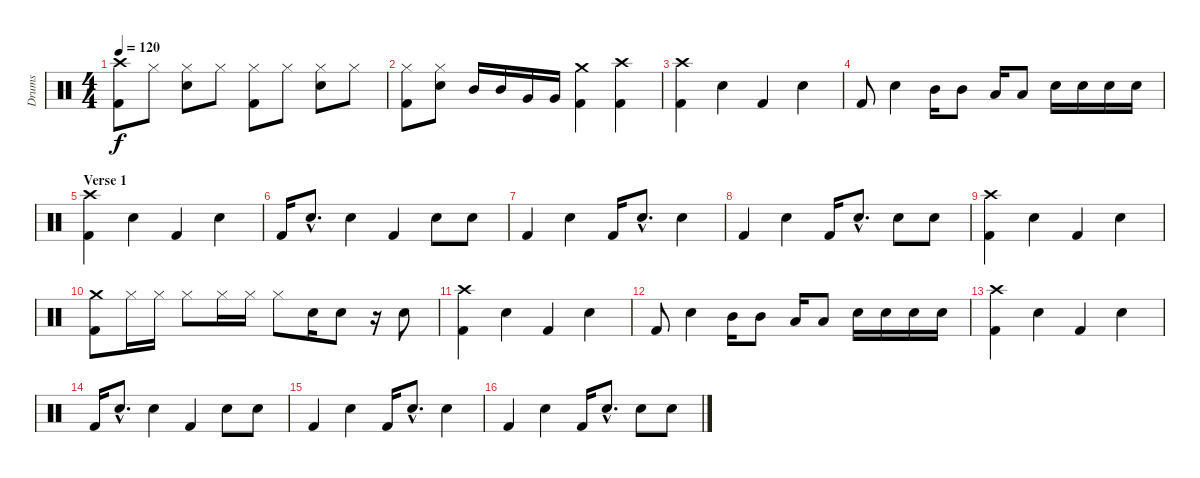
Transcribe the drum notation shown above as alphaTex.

\track ("Drums" "Drums") {instrument percussion}
\staff {score}
\articulation defaults
\ts (4 4)
\tempo 120
\clef neutral
\ks c
("Crash high (hit)" "Kick (hit) 2").8{dy f} "Hi-Hat (closed)".8 ("Electric Snare (hit)" "Hi-Hat (closed)").8 "Hi-Hat (closed)".8 ("Hi-Hat (closed)" "Kick (hit) 2").8 "Hi-Hat (closed)".8 ("Electric Snare (hit)" "Hi-Hat (closed)").8 "Hi-Hat (closed)".8 |
("Hi-Hat (closed)" "Kick (hit) 2").8 ("Electric Snare (hit)" "Hi-Hat (closed)").8 "Mid Tom (hit)".16 "Mid Tom (hit)".16 "Very Low Tom (hit)".16 "Very Low Tom (hit)".16 ("Crash medium (hit)" "Kick (hit) 2").4 ("Crash high (hit)" "Kick (hit) 2").4 |
("Crash high (hit)" "Kick (hit) 2").4 "Electric Snare (hit)".4 "Kick (hit) 2".4 "Electric Snare (hit)".4 |
"Kick (hit) 2".8 "Electric Snare (hit)".4 "Mid Tom (hit)".16 "Mid Tom (hit)".8 "Low Tom (hit)".16 "Low Tom (hit)".8 "Electric Snare (hit)".16 "Electric Snare (hit)".16 "Electric Snare (hit)".16 "Electric Snare (hit)".16 |
\section ("" "Verse 1")
("Crash high (hit)" "Kick (hit) 2").4 "Electric Snare (hit)".4 "Kick (hit) 2".4 "Electric Snare (hit)".4 |
"Kick (hit) 2".16 "Electric Snare (hit)"{hac}.8{d} "Electric Snare (hit)".4 "Kick (hit) 2".4 "Electric Snare (hit)".8 "Electric Snare (hit)".8 |
"Kick (hit) 2".4 "Electric Snare (hit)".4 "Kick (hit) 2".16 "Electric Snare (hit)"{hac}.8{d} "Electric Snare (hit)".4 |
"Kick (hit) 2".4 "Electric Snare (hit)".4 "Kick (hit) 2".16 "Electric Snare (hit)"{hac}.8{d} "Electric Snare (hit)".8 "Electric Snare (hit)".8 |
("Crash high (hit)" "Kick (hit) 2").4 "Electric Snare (hit)".4 "Kick (hit) 2".4 "Electric Snare (hit)".4 |
("Crash medium (hit)" "Kick (hit) 2").8 "Hi-Hat (closed)".16 "Hi-Hat (closed)".16 "Hi-Hat (closed)".8 "Hi-Hat (closed)".16 "Hi-Hat (closed)".16 "Hi-Hat (closed)".8 "Electric Snare (hit)".16 "Electric Snare (hit)".8 r.16 "Electric Snare (hit)".8 |
("Crash high (hit)" "Kick (hit) 2").4 "Electric Snare (hit)".4 "Kick (hit) 2".4 "Electric Snare (hit)".4 |
"Kick (hit) 2".8 "Electric Snare (hit)".4 "Mid Tom (hit)".16 "Mid Tom (hit)".8 "Low Tom (hit)".16 "Low Tom (hit)".8 "Electric Snare (hit)".16 "Electric Snare (hit)".16 "Electric Snare (hit)".16 "Electric Snare (hit)".16 |
("Crash high (hit)" "Kick (hit) 2").4 "Electric Snare (hit)".4 "Kick (hit) 2".4 "Electric Snare (hit)".4 |
"Kick (hit) 2".16 "Electric Snare (hit)"{hac}.8{d} "Electric Snare (hit)".4 "Kick (hit) 2".4 "Electric Snare (hit)".8 "Electric Snare (hit)".8 |
"Kick (hit) 2".4 "Electric Snare (hit)".4 "Kick (hit) 2".16 "Electric Snare (hit)"{hac}.8{d} "Electric Snare (hit)".4 |
"Kick (hit) 2".4 "Electric Snare (hit)".4 "Kick (hit) 2".16 "Electric Snare (hit)"{hac}.8{d} "Electric Snare (hit)".8 "Electric Snare (hit)".8
